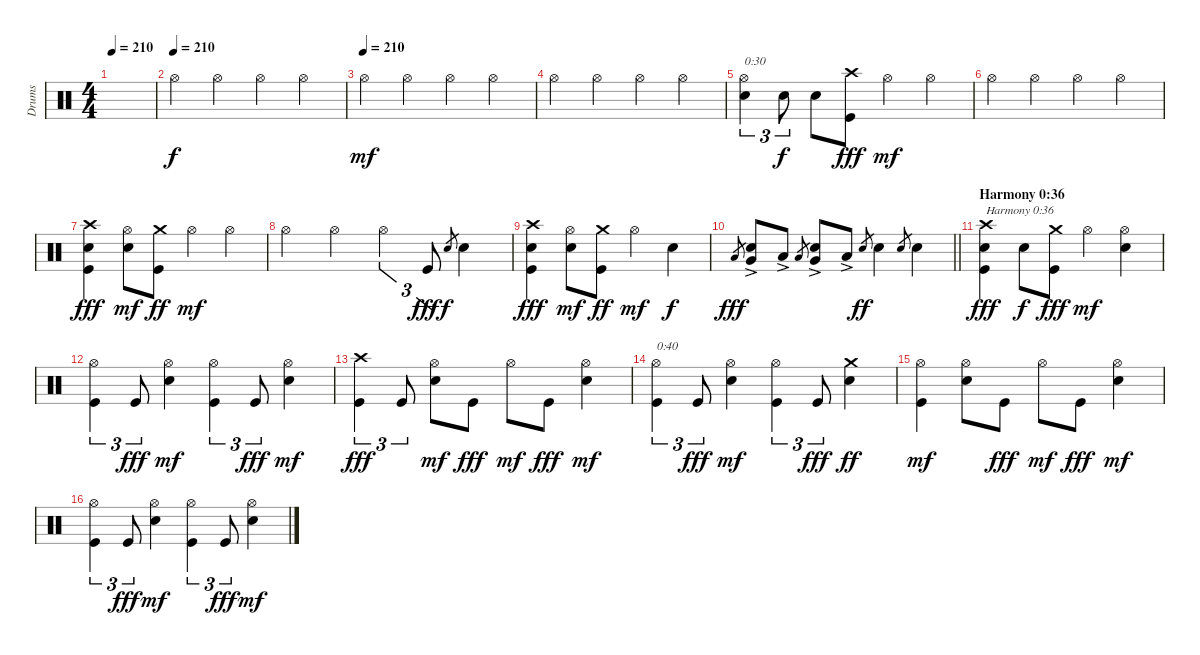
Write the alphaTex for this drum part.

\track ("Drums" "Drums") {instrument percussion}
\staff {score}
\articulation defaults
\ts (4 4)
\tempo 210
\clef neutral
\ks c
|
\tempo (210)
"Hi-Hat (open)".4 "Hi-Hat (open)".4 "Hi-Hat (open)".4 "Hi-Hat (open)".4 |
\tempo (210)
"Hi-Hat (open)".4{dy mf} "Hi-Hat (open)".4 "Hi-Hat (open)".4 "Hi-Hat (open)".4 |
"Hi-Hat (open)".4 "Hi-Hat (open)".4 "Hi-Hat (open)".4 "Hi-Hat (open)".4 |
("Electric Snare (hit)" "Hi-Hat (open)").4{tu (3 2) txt "0:30"} "Electric Snare (hit)".8{tu (3 2) dy f} "Electric Snare (hit)".8 ("Kick (hit)" "Crash high (hit)").8{dy fff} "Hi-Hat (open)".4{dy mf} "Hi-Hat (open)".4 |
"Hi-Hat (open)".4 "Hi-Hat (open)".4 "Hi-Hat (open)".4 "Hi-Hat (open)".4 |
("Kick (hit)" "Electric Snare (hit)" "Crash high (hit)").4{dy fff} ("Electric Snare (hit)" "Hi-Hat (open)").8{dy mf} ("Kick (hit)" "Crash medium (hit)").8{dy ff} "Hi-Hat (open)".4{dy mf} "Hi-Hat (open)".4 |
"Hi-Hat (open)".4 "Hi-Hat (open)".4 "Hi-Hat (open)".4{tu (3 2)} "Kick (hit)".8{tu (3 2) dy fff} "Electric Snare (hit)".8{gr dy f} "Electric Snare (hit)".4 |
("Kick (hit)" "Electric Snare (hit)" "Crash high (hit)").4{dy fff} ("Electric Snare (hit)" "Hi-Hat (open)").8{dy mf} ("Kick (hit)" "Crash medium (hit)").8{dy ff} "Hi-Hat (open)".4{dy mf} "Electric Snare (hit)".4{dy f} |
\barLineRight lightlight "Low Tom (hit)".8{gr dy fff}
("Very Low Tom (hit)"{ac} "Electric Snare (hit)").8 "Low Tom (hit)"{ac}.8 "Low Tom (hit)".8{gr} ("Very Low Tom (hit)"{ac} "Electric Snare (hit)").8 "Low Tom (hit)"{ac}.8 "Electric Snare (hit)".8{gr dy ff} "Electric Snare (hit)".4 "Electric Snare (hit)".8{gr} "Electric Snare (hit)".4 |
\section ("" "Harmony 0:36")
("Kick (hit)" "Electric Snare (hit)" "Crash high (hit)").4{txt "Harmony 0:36" dy fff} "Electric Snare (hit)".8{dy f} ("Kick (hit)" "Crash medium (hit)").8{dy fff} "Hi-Hat (open)".4{dy mf} ("Electric Snare (hit)" "Hi-Hat (open)").4 |
("Kick (hit)" "Hi-Hat (open)").4{tu (3 2)} "Kick (hit)".8{tu (3 2) dy fff} ("Electric Snare (hit)" "Hi-Hat (open)").4{dy mf} ("Kick (hit)" "Hi-Hat (open)").4{tu (3 2)} "Kick (hit)".8{tu (3 2) dy fff} ("Electric Snare (hit)" "Hi-Hat (open)").4{dy mf} |
("Kick (hit)" "Crash high (hit)").4{tu (3 2) dy fff} "Kick (hit)".8{tu (3 2)} ("Electric Snare (hit)" "Hi-Hat (open)").8{dy mf} "Kick (hit)".8{dy fff} "Hi-Hat (open)".8{dy mf} "Kick (hit)".8{dy fff} ("Electric Snare (hit)" "Hi-Hat (open)").4{dy mf} |
("Kick (hit)" "Hi-Hat (open)").4{tu (3 2) txt "0:40"} "Kick (hit)".8{tu (3 2) dy fff} ("Electric Snare (hit)" "Hi-Hat (open)").4{dy mf} ("Kick (hit)" "Hi-Hat (open)").4{tu (3 2)} "Kick (hit)".8{tu (3 2) dy fff} ("Electric Snare (hit)" "Crash medium (hit)").4{dy ff} |
("Kick (hit)" "Hi-Hat (open)").4{dy mf} ("Electric Snare (hit)" "Hi-Hat (open)").8 "Kick (hit)".8{dy fff} "Hi-Hat (open)".8{dy mf} "Kick (hit)".8{dy fff} ("Electric Snare (hit)" "Hi-Hat (open)").4{dy mf} |
("Kick (hit)" "Hi-Hat (open)").4{tu (3 2)} "Kick (hit)".8{tu (3 2) dy fff} ("Electric Snare (hit)" "Hi-Hat (open)").4{dy mf} ("Kick (hit)" "Hi-Hat (open)").4{tu (3 2)} "Kick (hit)".8{tu (3 2) dy fff} ("Electric Snare (hit)" "Hi-Hat (open)").4{dy mf}
